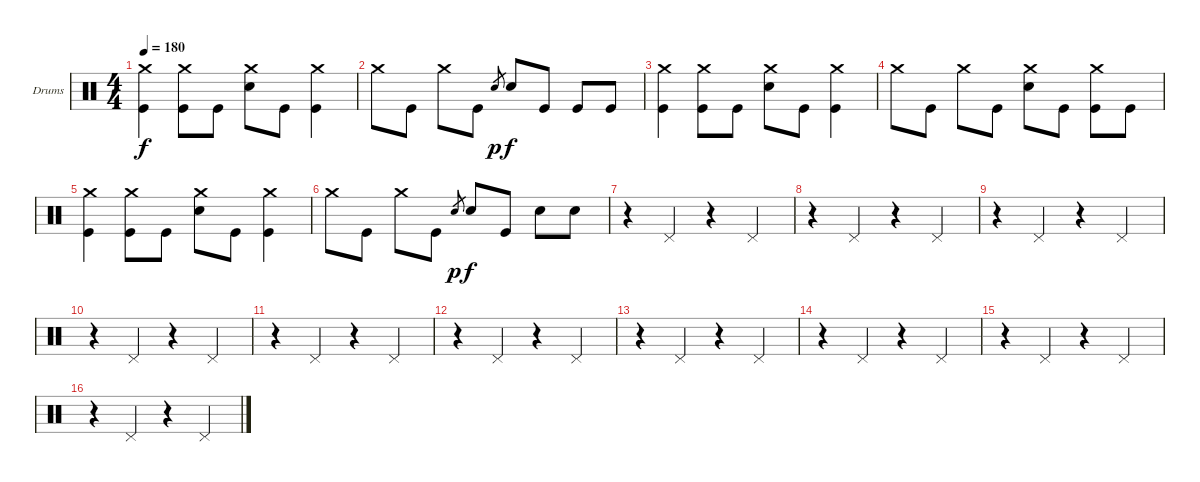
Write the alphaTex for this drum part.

\defaultSystemsLayout 4
\bracketExtendMode groupsimilarinstruments
\firstSystemTrackNameOrientation horizontal
\otherSystemsTrackNameOrientation horizontal
\track ("Барабаны" "Drums") {instrument percussion}
\staff {score}
\articulation defaults
\ts (4 4)
\tempo 180
\clef neutral
\scale
0.333333
\ks c
("Crash medium (hit)" "Kick (hit)").4{dy f} ("Crash medium (hit)" "Kick (hit)").8 "Kick (hit)".8 ("Crash medium (hit)" "Snare (hit) 2").8 "Kick (hit)".8 ("Crash medium (hit)" "Kick (hit)").4 |
\scale
0.333333 "Crash medium (hit)".8 "Kick (hit)".8 "Crash medium (hit)".8 "Kick (hit)".8 "Snare (hit) 2".8{gr dy p} "Snare (hit) 2".8{dy f} "Kick (hit)".8 "Kick (hit)".8 "Kick (hit)".8 |
\scale
0.333333 ("Crash medium (hit)" "Kick (hit)").4 ("Crash medium (hit)" "Kick (hit)").8 "Kick (hit)".8 ("Crash medium (hit)" "Snare (hit) 2").8 "Kick (hit)".8 ("Crash medium (hit)" "Kick (hit)").4 |
\scale
0.333333 "Crash medium (hit)".8 "Kick (hit)".8 "Crash medium (hit)".8 "Kick (hit)".8 ("Crash medium (hit)" "Snare (hit) 2").8 "Kick (hit)".8 ("Crash medium (hit)" "Kick (hit)").8 "Kick (hit)".8 |
\scale
0.333333 ("Crash medium (hit)" "Kick (hit)").4 ("Crash medium (hit)" "Kick (hit)").8 "Kick (hit)".8 ("Crash medium (hit)" "Snare (hit) 2").8 "Kick (hit)".8 ("Crash medium (hit)" "Kick (hit)").4 |
\scale
0.333333 "Crash medium (hit)".8 "Kick (hit)".8 "Crash medium (hit)".8 "Kick (hit)".8 "Snare (hit) 2".8{gr dy p} "Snare (hit) 2".8{dy f} "Kick (hit)".8 "Snare (hit) 2".8 "Snare (hit) 2".8 |
\scale
0.333333 r.4 "Pedal Hi-Hat (hit)".4 r.4 "Pedal Hi-Hat (hit)".4 |
\scale
0.333333 r.4 "Pedal Hi-Hat (hit)".4 r.4 "Pedal Hi-Hat (hit)".4 |
\scale
0.333333 r.4 "Pedal Hi-Hat (hit)".4 r.4 "Pedal Hi-Hat (hit)".4 |
\scale
0.333333 r.4 "Pedal Hi-Hat (hit)".4 r.4 "Pedal Hi-Hat (hit)".4 |
\scale
0.333333 r.4 "Pedal Hi-Hat (hit)".4 r.4 "Pedal Hi-Hat (hit)".4 |
\scale
0.333333 r.4 "Pedal Hi-Hat (hit)".4 r.4 "Pedal Hi-Hat (hit)".4 |
\scale
0.333333 r.4 "Pedal Hi-Hat (hit)".4 r.4 "Pedal Hi-Hat (hit)".4 |
\scale
0.333333 r.4 "Pedal Hi-Hat (hit)".4 r.4 "Pedal Hi-Hat (hit)".4 |
\scale
0.333333 r.4 "Pedal Hi-Hat (hit)".4 r.4 "Pedal Hi-Hat (hit)".4 |
\scale
0.333333 r.4 "Pedal Hi-Hat (hit)".4 r.4 "Pedal Hi-Hat (hit)".4
